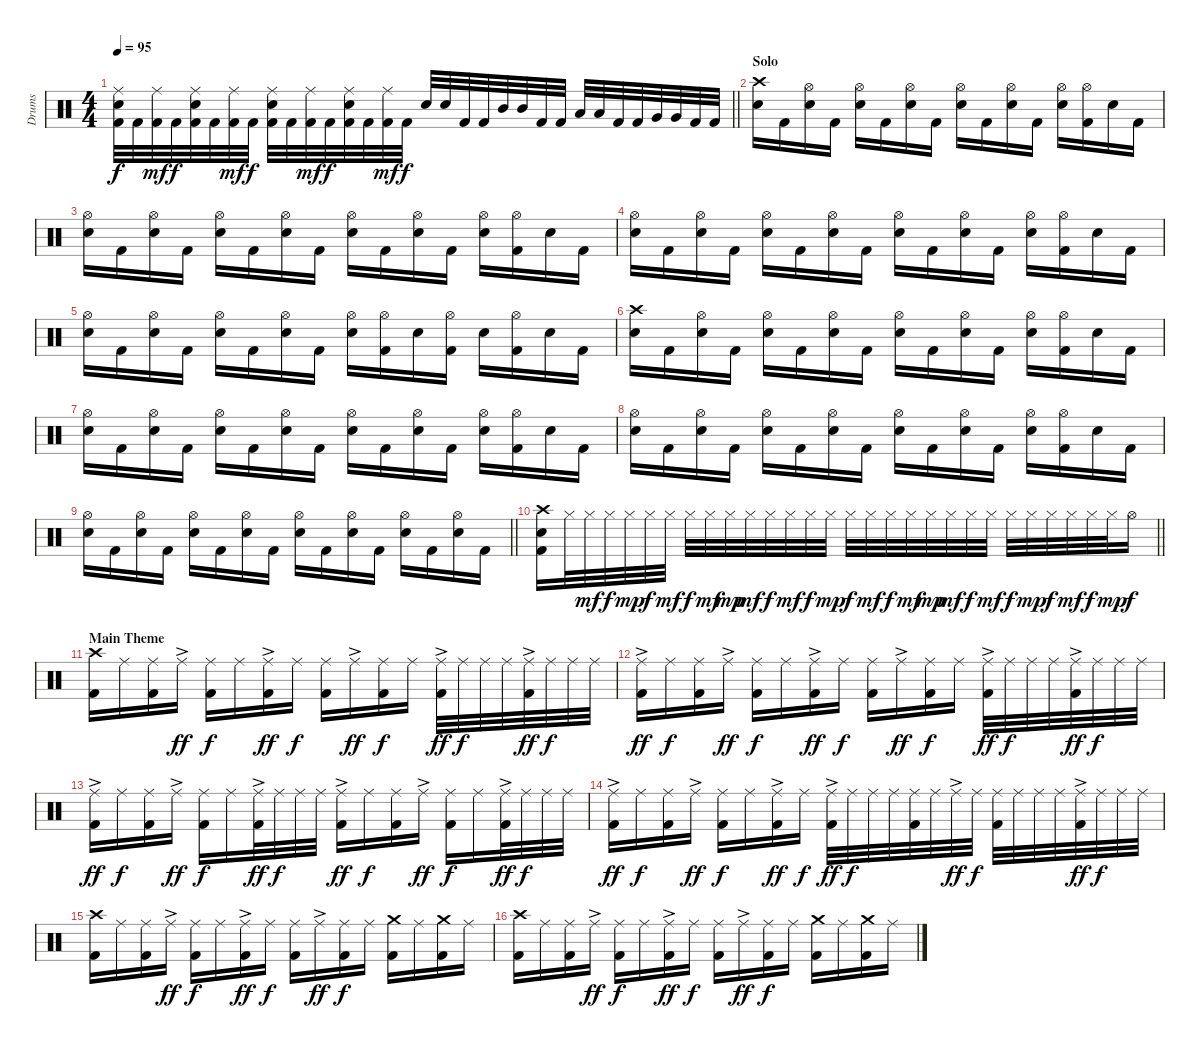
\track ("Drums" "Drums") {instrument percussion}
\staff {score}
\articulation defaults
\ts (4 4)
\tempo 95
\clef neutral
\barLineRight lightlight
\ks c
("Ride (middle)" "Snare (hit) 2" "Kick (hit) 2").32{dy f} "Kick (hit) 2".32 ("Ride (middle)" "Kick (hit) 2").32{dy mf} "Kick (hit) 2".32{dy f} ("Ride (middle)" "Snare (hit) 2" "Kick (hit) 2").32 "Kick (hit) 2".32 ("Ride (middle)" "Kick (hit) 2").32{dy mf} "Kick (hit) 2".32{dy f} ("Ride (middle)" "Snare (hit) 2" "Kick (hit) 2").32 "Kick (hit) 2".32 ("Ride (middle)" "Kick (hit) 2").32{dy mf} "Kick (hit) 2".32{dy f} ("Ride (middle)" "Snare (hit) 2" "Kick (hit) 2").32 "Kick (hit) 2".32 ("Ride (middle)" "Kick (hit) 2").32{dy mf} "Kick (hit) 2".32{dy f} "Snare (hit) 2".32 "Snare (hit) 2".32 "Kick (hit) 2".32 "Kick (hit) 2".32 "Mid Tom (hit)".32 "Mid Tom (hit)".32 "Kick (hit) 2".32 "Kick (hit) 2".32 "Low Tom (hit)".32 "Low Tom (hit)".32 "Kick (hit) 2".32 "Kick (hit) 2".32 "Very Low Tom (hit)".32 "Very Low Tom (hit)".32 "Kick (hit) 2".32 "Kick (hit) 2".32 |
\section ("" "Solo")
("Crash high (hit)" "Snare (hit) 2").16 "Kick (hit) 2".16 ("Hi-Hat (open)" "Snare (hit) 2").16 "Kick (hit) 2".16 ("Hi-Hat (open)" "Snare (hit) 2").16 "Kick (hit) 2".16 ("Hi-Hat (open)" "Snare (hit) 2").16 "Kick (hit) 2".16 ("Hi-Hat (open)" "Snare (hit) 2").16 "Kick (hit) 2".16 ("Hi-Hat (open)" "Snare (hit) 2").16 "Kick (hit) 2".16 ("Hi-Hat (open)" "Snare (hit) 2").16 ("Hi-Hat (open)" "Kick (hit) 2").16 "Snare (hit) 2".16 "Kick (hit) 2".16 |
("Hi-Hat (open)" "Snare (hit) 2").16 "Kick (hit) 2".16 ("Hi-Hat (open)" "Snare (hit) 2").16 "Kick (hit) 2".16 ("Hi-Hat (open)" "Snare (hit) 2").16 "Kick (hit) 2".16 ("Hi-Hat (open)" "Snare (hit) 2").16 "Kick (hit) 2".16 ("Hi-Hat (open)" "Snare (hit) 2").16 "Kick (hit) 2".16 ("Hi-Hat (open)" "Snare (hit) 2").16 "Kick (hit) 2".16 ("Hi-Hat (open)" "Snare (hit) 2").16 ("Hi-Hat (open)" "Kick (hit) 2").16 "Snare (hit) 2".16 "Kick (hit) 2".16 |
("Hi-Hat (open)" "Snare (hit) 2").16 "Kick (hit) 2".16 ("Hi-Hat (open)" "Snare (hit) 2").16 "Kick (hit) 2".16 ("Hi-Hat (open)" "Snare (hit) 2").16 "Kick (hit) 2".16 ("Hi-Hat (open)" "Snare (hit) 2").16 "Kick (hit) 2".16 ("Hi-Hat (open)" "Snare (hit) 2").16 "Kick (hit) 2".16 ("Hi-Hat (open)" "Snare (hit) 2").16 "Kick (hit) 2".16 ("Hi-Hat (open)" "Snare (hit) 2").16 ("Hi-Hat (open)" "Kick (hit) 2").16 "Snare (hit) 2".16 "Kick (hit) 2".16 |
("Hi-Hat (open)" "Snare (hit) 2").16 "Kick (hit) 2".16 ("Hi-Hat (open)" "Snare (hit) 2").16 "Kick (hit) 2".16 ("Hi-Hat (open)" "Snare (hit) 2").16 "Kick (hit) 2".16 ("Hi-Hat (open)" "Snare (hit) 2").16 "Kick (hit) 2".16 ("Hi-Hat (open)" "Snare (hit) 2").16 ("Hi-Hat (open)" "Kick (hit) 2").16 "Snare (hit) 2".16 ("Hi-Hat (open)" "Kick (hit) 2").16 "Snare (hit) 2".16 ("Hi-Hat (open)" "Kick (hit) 2").16 "Snare (hit) 2".16 "Kick (hit) 2".16 |
("Crash high (hit)" "Snare (hit) 2").16 "Kick (hit) 2".16 ("Hi-Hat (open)" "Snare (hit) 2").16 "Kick (hit) 2".16 ("Hi-Hat (open)" "Snare (hit) 2").16 "Kick (hit) 2".16 ("Hi-Hat (open)" "Snare (hit) 2").16 "Kick (hit) 2".16 ("Hi-Hat (open)" "Snare (hit) 2").16 "Kick (hit) 2".16 ("Hi-Hat (open)" "Snare (hit) 2").16 "Kick (hit) 2".16 ("Hi-Hat (open)" "Snare (hit) 2").16 ("Hi-Hat (open)" "Kick (hit) 2").16 "Snare (hit) 2".16 "Kick (hit) 2".16 |
("Hi-Hat (open)" "Snare (hit) 2").16 "Kick (hit) 2".16 ("Hi-Hat (open)" "Snare (hit) 2").16 "Kick (hit) 2".16 ("Hi-Hat (open)" "Snare (hit) 2").16 "Kick (hit) 2".16 ("Hi-Hat (open)" "Snare (hit) 2").16 "Kick (hit) 2".16 ("Hi-Hat (open)" "Snare (hit) 2").16 "Kick (hit) 2".16 ("Hi-Hat (open)" "Snare (hit) 2").16 "Kick (hit) 2".16 ("Hi-Hat (open)" "Snare (hit) 2").16 ("Hi-Hat (open)" "Kick (hit) 2").16 "Snare (hit) 2".16 "Kick (hit) 2".16 |
("Hi-Hat (open)" "Snare (hit) 2").16 "Kick (hit) 2".16 ("Hi-Hat (open)" "Snare (hit) 2").16 "Kick (hit) 2".16 ("Hi-Hat (open)" "Snare (hit) 2").16 "Kick (hit) 2".16 ("Hi-Hat (open)" "Snare (hit) 2").16 "Kick (hit) 2".16 ("Hi-Hat (open)" "Snare (hit) 2").16 "Kick (hit) 2".16 ("Hi-Hat (open)" "Snare (hit) 2").16 "Kick (hit) 2".16 ("Hi-Hat (open)" "Snare (hit) 2").16 ("Hi-Hat (open)" "Kick (hit) 2").16 "Snare (hit) 2".16 "Kick (hit) 2".16 |
\barLineRight lightlight
("Hi-Hat (open)" "Snare (hit) 2").16 "Kick (hit) 2".16 ("Hi-Hat (open)" "Snare (hit) 2").16 "Kick (hit) 2".16 ("Hi-Hat (open)" "Snare (hit) 2").16 "Kick (hit) 2".16 ("Hi-Hat (open)" "Snare (hit) 2").16 "Kick (hit) 2".16 ("Hi-Hat (open)" "Snare (hit) 2").16 "Kick (hit) 2".16 ("Hi-Hat (open)" "Snare (hit) 2").16 "Kick (hit) 2".16 ("Hi-Hat (open)" "Snare (hit) 2").16 "Kick (hit) 2".16 ("Hi-Hat (open)" "Snare (hit) 2").16 "Kick (hit) 2".16 |
\section ("" "")
\barLineRight lightlight
("Crash high (hit)" "Snare (hit) 2" "Kick (hit) 2").16 "Hi-Hat (closed)".32 "Hi-Hat (closed)".32{dy mf} "Hi-Hat (closed)".32{dy f} "Hi-Hat (closed)".32{dy mp} "Hi-Hat (closed)".32{dy f} "Hi-Hat (closed)".32{dy mf} "Hi-Hat (closed)".32{dy f} "Hi-Hat (closed)".32{dy mf} "Hi-Hat (closed)".32{dy mp} "Hi-Hat (closed)".32{dy mf} "Hi-Hat (closed)".32{dy f} "Hi-Hat (closed)".32{dy mf} "Hi-Hat (closed)".32{dy f} "Hi-Hat (closed)".32{dy mp} "Hi-Hat (closed)".32{dy f} "Hi-Hat (closed)".32{dy mf} "Hi-Hat (closed)".32{dy f} "Hi-Hat (closed)".32{dy mf} "Hi-Hat (closed)".32{dy mp} "Hi-Hat (closed)".32{dy mf} "Hi-Hat (closed)".32{dy f} "Hi-Hat (closed)".32{dy mf} "Hi-Hat (closed)".32{dy f} "Hi-Hat (closed)".32{dy mp} "Hi-Hat (closed)".32{dy f} "Hi-Hat (closed)".32{dy mf} "Hi-Hat (closed)".32{dy f} "Hi-Hat (closed)".32{dy mp} "Hi-Hat (open)".16{dy f} |
\section ("" "Main Theme")
("Crash high (hit)" "Kick (hit) 2").16 "Ride (middle)".16 ("Ride (middle)" "Kick (hit) 2").16 "Ride (middle)"{ac}.16{dy ff} ("Ride (middle)" "Kick (hit) 2").16{dy f} "Ride (middle)".16 ("Ride (middle)"{ac} "Kick (hit) 2").16{dy ff} "Ride (middle)".16{dy f} ("Ride (middle)" "Kick (hit) 2").16 "Ride (middle)"{ac}.16{dy ff} ("Ride (middle)" "Kick (hit) 2").16{dy f} "Ride (middle)".16 ("Ride (middle)"{ac} "Kick (hit) 2").32{dy ff} "Ride (middle)".32{dy f} "Ride (middle)".32 "Ride (middle)".32 ("Ride (middle)"{ac} "Kick (hit) 2").32{dy ff} "Ride (middle)".32{dy f} "Ride (middle)".32 "Ride (middle)".32 |
("Ride (middle)"{ac} "Kick (hit) 2").16{dy ff} "Ride (middle)".16{dy f} ("Ride (middle)" "Kick (hit) 2").16 "Ride (middle)"{ac}.16{dy ff} ("Ride (middle)" "Kick (hit) 2").16{dy f} "Ride (middle)".16 ("Ride (middle)"{ac} "Kick (hit) 2").16{dy ff} "Ride (middle)".16{dy f} ("Ride (middle)" "Kick (hit) 2").16 "Ride (middle)"{ac}.16{dy ff} ("Ride (middle)" "Kick (hit) 2").16{dy f} "Ride (middle)".16 ("Ride (middle)"{ac} "Kick (hit) 2").32{dy ff} "Ride (middle)".32{dy f} "Ride (middle)".32 "Ride (middle)".32 ("Ride (middle)"{ac} "Kick (hit) 2").32{dy ff} "Ride (middle)".32{dy f} "Ride (middle)".32 "Ride (middle)".32 |
("Ride (middle)"{ac} "Kick (hit) 2").16{dy ff} "Ride (middle)".16{dy f} ("Ride (middle)" "Kick (hit) 2").16 "Ride (middle)"{ac}.16{dy ff} ("Ride (middle)" "Kick (hit) 2").16{dy f} "Ride (middle)".16 ("Ride (middle)"{ac} "Kick (hit) 2").32{dy ff} "Ride (middle)".32{dy f} "Ride (middle)".32 "Ride (middle)".32 ("Ride (middle)"{ac} "Kick (hit) 2").16{dy ff} "Ride (middle)".16{dy f} ("Ride (middle)" "Kick (hit) 2").16 "Ride (middle)"{ac}.16{dy ff} ("Ride (middle)" "Kick (hit) 2").16{dy f} "Ride (middle)".16 ("Ride (middle)"{ac} "Kick (hit) 2").32{dy ff} "Ride (middle)".32{dy f} "Ride (middle)".32 "Ride (middle)".32 |
("Ride (middle)"{ac} "Kick (hit) 2").16{dy ff} "Ride (middle)".16{dy f} ("Ride (middle)" "Kick (hit) 2").16 "Ride (middle)"{ac}.16{dy ff} ("Ride (middle)" "Kick (hit) 2").16{dy f} "Ride (middle)".16 ("Ride (middle)"{ac} "Kick (hit) 2").16{dy ff} "Ride (middle)".16{dy f} ("Ride (middle)"{ac} "Kick (hit) 2").32{dy ff} "Ride (middle)".32{dy f} "Ride (middle)".32 "Ride (middle)".32 ("Ride (middle)" "Kick (hit) 2").32 "Ride (middle)".32 "Ride (middle)"{ac}.32{dy ff} "Ride (middle)".32{dy f} ("Ride (middle)" "Kick (hit) 2").32 "Ride (middle)".32 "Ride (middle)".32 "Ride (middle)".32 ("Ride (middle)"{ac} "Kick (hit) 2").32{dy ff} "Ride (middle)".32{dy f} "Ride (middle)".32 "Ride (middle)".32 |
("Crash high (hit)" "Kick (hit) 2").16 "Ride (middle)".16 ("Ride (middle)" "Kick (hit) 2").16 "Ride (middle)"{ac}.16{dy ff} ("Ride (middle)" "Kick (hit) 2").16{dy f} "Ride (middle)".16 ("Ride (middle)"{ac} "Kick (hit) 2").16{dy ff} "Ride (middle)".16{dy f} ("Ride (middle)" "Kick (hit) 2").16 "Ride (middle)"{ac}.16{dy ff} ("Ride (middle)" "Kick (hit) 2").16{dy f} "Ride (middle)".16 ("Crash medium (hit)" "Kick (hit) 2").16 "Ride (middle)".16 ("Crash medium (hit)" "Kick (hit) 2").16 "Ride (middle)".16 |
("Crash high (hit)" "Kick (hit) 2").16 "Ride (middle)".16 ("Ride (middle)" "Kick (hit) 2").16 "Ride (middle)"{ac}.16{dy ff} ("Ride (middle)" "Kick (hit) 2").16{dy f} "Ride (middle)".16 ("Ride (middle)"{ac} "Kick (hit) 2").16{dy ff} "Ride (middle)".16{dy f} ("Ride (middle)" "Kick (hit) 2").16 "Ride (middle)"{ac}.16{dy ff} ("Ride (middle)" "Kick (hit) 2").16{dy f} "Ride (middle)".16 ("Crash medium (hit)" "Kick (hit) 2").16 "Ride (middle)".16 ("Crash medium (hit)" "Kick (hit) 2").16 "Ride (middle)".16
